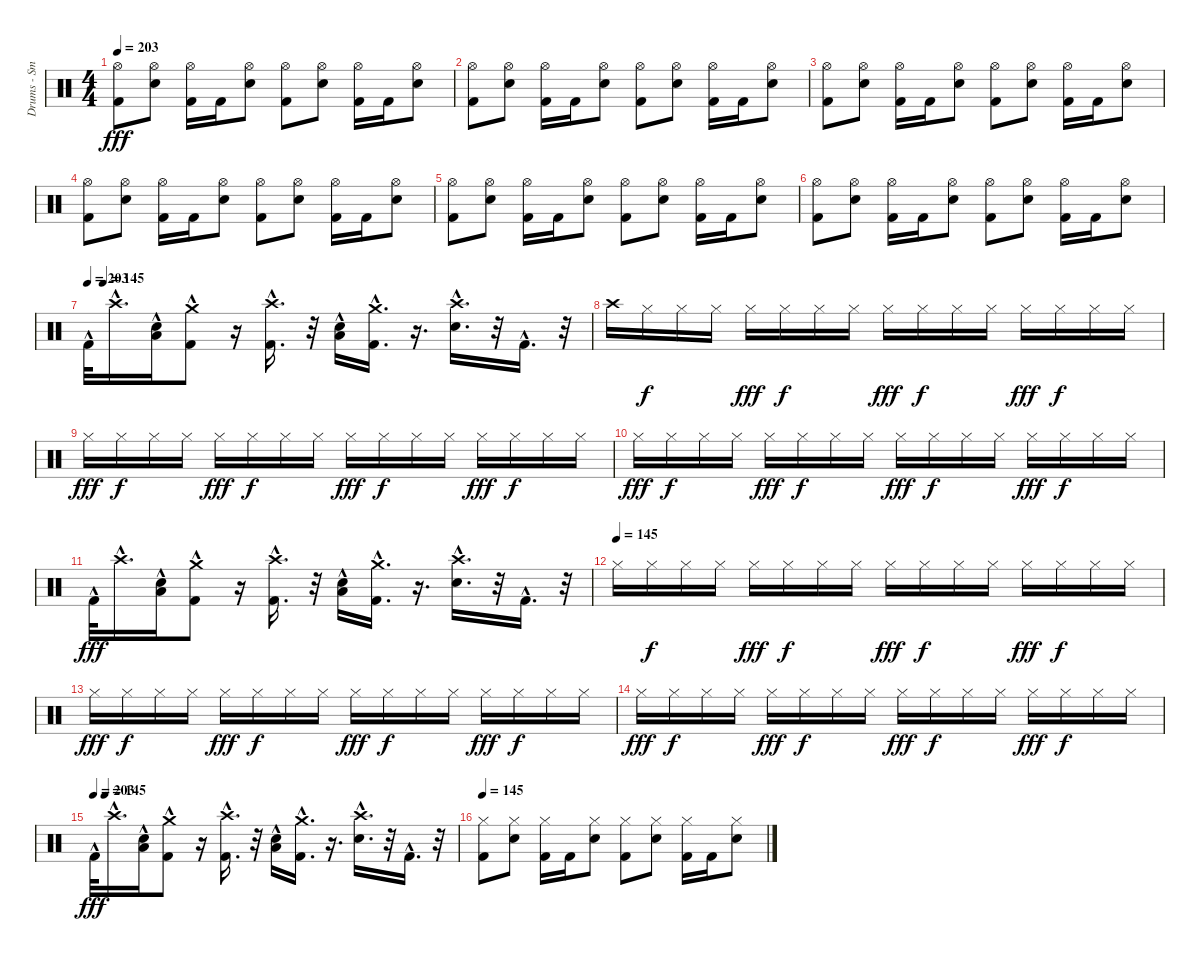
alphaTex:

\track ("Drums - Smelly" "Drums - Sm") {instrument percussion}
\staff {score}
\articulation defaults
\ts (4 4)
\tempo 203
\clef neutral
\ks c
("Kick (hit) 2" "Hi-Hat (open)").8{dy fff} ("Electric Snare (hit)" "Hi-Hat (open)").8 ("Kick (hit) 2" "Hi-Hat (open)").16 "Kick (hit) 2".16 ("Electric Snare (hit)" "Hi-Hat (open)").8 ("Kick (hit) 2" "Hi-Hat (open)").8 ("Electric Snare (hit)" "Hi-Hat (open)").8 ("Kick (hit) 2" "Hi-Hat (open)").16 "Kick (hit) 2".16 ("Electric Snare (hit)" "Hi-Hat (open)").8 |
("Kick (hit) 2" "Hi-Hat (open)").8 ("Electric Snare (hit)" "Hi-Hat (open)").8 ("Kick (hit) 2" "Hi-Hat (open)").16 "Kick (hit) 2".16 ("Electric Snare (hit)" "Hi-Hat (open)").8 ("Kick (hit) 2" "Hi-Hat (open)").8 ("Electric Snare (hit)" "Hi-Hat (open)").8 ("Kick (hit) 2" "Hi-Hat (open)").16 "Kick (hit) 2".16 ("Electric Snare (hit)" "Hi-Hat (open)").8 |
("Kick (hit) 2" "Hi-Hat (open)").8 ("Electric Snare (hit)" "Hi-Hat (open)").8 ("Kick (hit) 2" "Hi-Hat (open)").16 "Kick (hit) 2".16 ("Electric Snare (hit)" "Hi-Hat (open)").8 ("Kick (hit) 2" "Hi-Hat (open)").8 ("Electric Snare (hit)" "Hi-Hat (open)").8 ("Kick (hit) 2" "Hi-Hat (open)").16 "Kick (hit) 2".16 ("Electric Snare (hit)" "Hi-Hat (open)").8 |
("Kick (hit) 2" "Hi-Hat (open)").8 ("Electric Snare (hit)" "Hi-Hat (open)").8 ("Kick (hit) 2" "Hi-Hat (open)").16 "Kick (hit) 2".16 ("Electric Snare (hit)" "Hi-Hat (open)").8 ("Kick (hit) 2" "Hi-Hat (open)").8 ("Electric Snare (hit)" "Hi-Hat (open)").8 ("Kick (hit) 2" "Hi-Hat (open)").16 "Kick (hit) 2".16 ("Electric Snare (hit)" "Hi-Hat (open)").8 |
("Kick (hit) 2" "Hi-Hat (open)").8 ("Electric Snare (hit)" "Hi-Hat (open)").8 ("Kick (hit) 2" "Hi-Hat (open)").16 "Kick (hit) 2".16 ("Electric Snare (hit)" "Hi-Hat (open)").8 ("Kick (hit) 2" "Hi-Hat (open)").8 ("Electric Snare (hit)" "Hi-Hat (open)").8 ("Kick (hit) 2" "Hi-Hat (open)").16 "Kick (hit) 2".16 ("Electric Snare (hit)" "Hi-Hat (open)").8 |
("Kick (hit) 2" "Hi-Hat (open)").8 ("Electric Snare (hit)" "Hi-Hat (open)").8 ("Kick (hit) 2" "Hi-Hat (open)").16 "Kick (hit) 2".16 ("Electric Snare (hit)" "Hi-Hat (open)").8 ("Kick (hit) 2" "Hi-Hat (open)").8 ("Electric Snare (hit)" "Hi-Hat (open)").8 ("Kick (hit) 2" "Hi-Hat (open)").16 "Kick (hit) 2".16 ("Electric Snare (hit)" "Hi-Hat (open)").8 |
\tempo 203
\tempo (145 0.03125)
"Kick (hit) 2"{hac}.32 "Crash high (hit)"{hac}.16{d} ("Low Tom (hit)" "Electric Snare (hit)"{hac}).16 ("Kick (hit) 2"{hac} "Crash medium (hit)").8 r.16 ("Kick (hit) 2"{hac} "Crash high (hit)"{hac}).16{d} r.32 ("Low Tom (hit)" "Electric Snare (hit)"{hac}).16 ("Crash medium (hit)"{hac} "Kick (hit) 2"{hac}).16{d} r.16{d} ("Electric Snare (hit)"{hac} "Crash high (hit)"{hac}).16{d} r.32 "Kick (hit) 2"{hac}.16{d} r.32 |
"Crash high (hit)".16 "Hi-Hat (closed)".16{dy f} "Hi-Hat (closed)".16 "Hi-Hat (closed)".16 "Hi-Hat (closed)".16{dy fff} "Hi-Hat (closed)".16{dy f} "Hi-Hat (closed)".16 "Hi-Hat (closed)".16 "Hi-Hat (closed)".16{dy fff} "Hi-Hat (closed)".16{dy f} "Hi-Hat (closed)".16 "Hi-Hat (closed)".16 "Hi-Hat (closed)".16{dy fff} "Hi-Hat (closed)".16{dy f} "Hi-Hat (closed)".16 "Hi-Hat (closed)".16 |
"Hi-Hat (closed)".16{dy fff} "Hi-Hat (closed)".16{dy f} "Hi-Hat (closed)".16 "Hi-Hat (closed)".16 "Hi-Hat (closed)".16{dy fff} "Hi-Hat (closed)".16{dy f} "Hi-Hat (closed)".16 "Hi-Hat (closed)".16 "Hi-Hat (closed)".16{dy fff} "Hi-Hat (closed)".16{dy f} "Hi-Hat (closed)".16 "Hi-Hat (closed)".16 "Hi-Hat (closed)".16{dy fff} "Hi-Hat (closed)".16{dy f} "Hi-Hat (closed)".16 "Hi-Hat (closed)".16 |
"Hi-Hat (closed)".16{dy fff} "Hi-Hat (closed)".16{dy f} "Hi-Hat (closed)".16 "Hi-Hat (closed)".16 "Hi-Hat (closed)".16{dy fff} "Hi-Hat (closed)".16{dy f} "Hi-Hat (closed)".16 "Hi-Hat (closed)".16 "Hi-Hat (closed)".16{dy fff} "Hi-Hat (closed)".16{dy f} "Hi-Hat (closed)".16 "Hi-Hat (closed)".16 "Hi-Hat (closed)".16{dy fff} "Hi-Hat (closed)".16{dy f} "Hi-Hat (closed)".16 "Hi-Hat (closed)".16 |
"Kick (hit) 2"{hac}.32{dy fff} "Crash high (hit)"{hac}.16{d} ("Low Tom (hit)" "Electric Snare (hit)"{hac}).16 ("Kick (hit) 2"{hac} "Crash medium (hit)").8 r.16 ("Kick (hit) 2"{hac} "Crash high (hit)"{hac}).16{d} r.32 ("Low Tom (hit)" "Electric Snare (hit)"{hac}).16 ("Crash medium (hit)"{hac} "Kick (hit) 2"{hac}).16{d} r.16{d} ("Electric Snare (hit)"{hac} "Crash high (hit)"{hac}).16{d} r.32 "Kick (hit) 2"{hac}.16{d} r.32 |
\tempo (145)
"Hi-Hat (closed)".16 "Hi-Hat (closed)".16{dy f} "Hi-Hat (closed)".16 "Hi-Hat (closed)".16 "Hi-Hat (closed)".16{dy fff} "Hi-Hat (closed)".16{dy f} "Hi-Hat (closed)".16 "Hi-Hat (closed)".16 "Hi-Hat (closed)".16{dy fff} "Hi-Hat (closed)".16{dy f} "Hi-Hat (closed)".16 "Hi-Hat (closed)".16 "Hi-Hat (closed)".16{dy fff} "Hi-Hat (closed)".16{dy f} "Hi-Hat (closed)".16 "Hi-Hat (closed)".16 |
"Hi-Hat (closed)".16{dy fff} "Hi-Hat (closed)".16{dy f} "Hi-Hat (closed)".16 "Hi-Hat (closed)".16 "Hi-Hat (closed)".16{dy fff} "Hi-Hat (closed)".16{dy f} "Hi-Hat (closed)".16 "Hi-Hat (closed)".16 "Hi-Hat (closed)".16{dy fff} "Hi-Hat (closed)".16{dy f} "Hi-Hat (closed)".16 "Hi-Hat (closed)".16 "Hi-Hat (closed)".16{dy fff} "Hi-Hat (closed)".16{dy f} "Hi-Hat (closed)".16 "Hi-Hat (closed)".16 |
"Hi-Hat (closed)".16{dy fff} "Hi-Hat (closed)".16{dy f} "Hi-Hat (closed)".16 "Hi-Hat (closed)".16 "Hi-Hat (closed)".16{dy fff} "Hi-Hat (closed)".16{dy f} "Hi-Hat (closed)".16 "Hi-Hat (closed)".16 "Hi-Hat (closed)".16{dy fff} "Hi-Hat (closed)".16{dy f} "Hi-Hat (closed)".16 "Hi-Hat (closed)".16 "Hi-Hat (closed)".16{dy fff} "Hi-Hat (closed)".16{dy f} "Hi-Hat (closed)".16 "Hi-Hat (closed)".16 |
\tempo 203
\tempo (145 0.03125)
"Kick (hit) 2"{hac}.32{dy fff} "Crash high (hit)"{hac}.16{d} ("Low Tom (hit)" "Electric Snare (hit)"{hac}).16 ("Kick (hit) 2"{hac} "Crash medium (hit)").8 r.16 ("Kick (hit) 2"{hac} "Crash high (hit)"{hac}).16{d} r.32 ("Low Tom (hit)" "Electric Snare (hit)"{hac}).16 ("Crash medium (hit)"{hac} "Kick (hit) 2"{hac}).16{d} r.16{d} ("Electric Snare (hit)"{hac} "Crash high (hit)"{hac}).16{d} r.32 "Kick (hit) 2"{hac}.16{d} r.32 |
\tempo 145
("Kick (hit) 2" "Hi-Hat (closed)").8 ("Electric Snare (hit)" "Hi-Hat (closed)").8 ("Hi-Hat (closed)" "Kick (hit) 2").16 "Kick (hit) 2".16 ("Electric Snare (hit)" "Hi-Hat (closed)").8 ("Kick (hit) 2" "Hi-Hat (closed)").8 ("Electric Snare (hit)" "Hi-Hat (closed)").8 ("Kick (hit) 2" "Hi-Hat (closed)").16 "Kick (hit) 2".16 ("Electric Snare (hit)" "Hi-Hat (closed)").8
